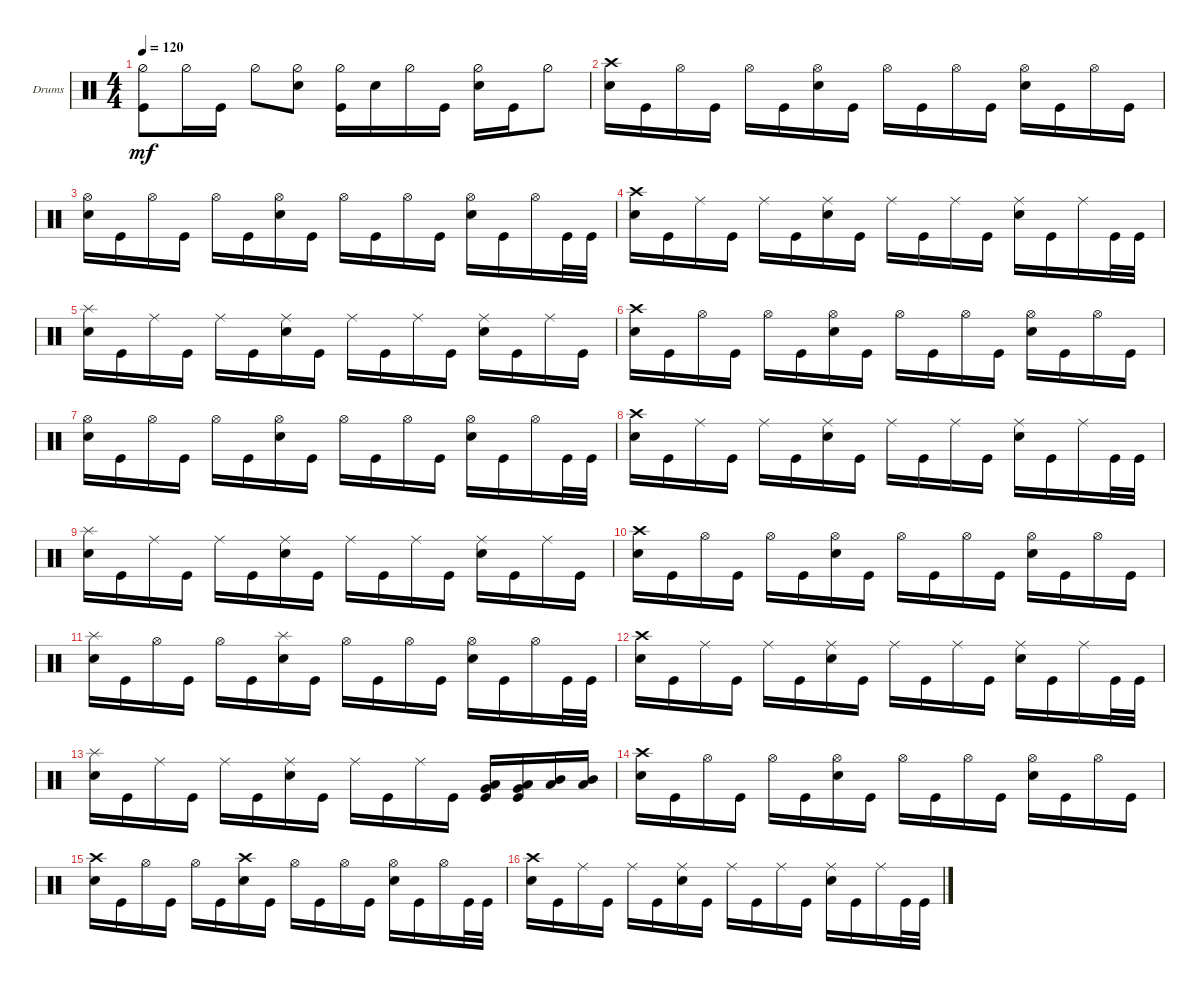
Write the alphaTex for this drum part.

\defaultSystemsLayout 4
\bracketExtendMode groupsimilarinstruments
\firstSystemTrackNameOrientation horizontal
\otherSystemsTrackNameOrientation horizontal
\track ("Drumkit" "Drums") {instrument percussion}
\staff {score}
\articulation defaults
\ts (4 4)
\tempo 120
\clef neutral
\ks c
("Kick (hit)" "Hi-Hat (half)").8{dy mf} "Hi-Hat (half)".16 "Kick (hit)".16 "Hi-Hat (half)".8 ("Snare (hit) 2" "Hi-Hat (half)").8 ("Kick (hit)" "Hi-Hat (half)").16 "Snare (hit) 2".16 "Hi-Hat (half)".16 "Kick (hit)".16 ("Snare (hit) 2" "Hi-Hat (half)").16 "Kick (hit)".16 "Hi-Hat (half)".8 |
("Snare (hit) 2" "Crash high (hit)").16 "Kick (hit)".16 "Hi-Hat (open)".16 "Kick (hit)".16 "Hi-Hat (open)".16 "Kick (hit)".16 ("Snare (hit) 2" "Hi-Hat (open)").16 "Kick (hit)".16 "Hi-Hat (open)".16 "Kick (hit)".16 "Hi-Hat (open)".16 "Kick (hit)".16 ("Snare (hit) 2" "Hi-Hat (open)").16 "Kick (hit)".16 "Hi-Hat (open)".16 "Kick (hit)".16 |
("Snare (hit) 2" "Hi-Hat (open)").16 "Kick (hit)".16 "Hi-Hat (open)".16 "Kick (hit)".16 "Hi-Hat (open)".16 "Kick (hit)".16 ("Snare (hit) 2" "Hi-Hat (open)").16 "Kick (hit)".16 "Hi-Hat (open)".16 "Kick (hit)".16 "Hi-Hat (open)".16 "Kick (hit)".16 ("Snare (hit) 2" "Hi-Hat (open)").16 "Kick (hit)".16 "Hi-Hat (open)".16 "Kick (hit)".32 "Kick (hit)".32 |
("Snare (hit) 2" "Crash high (hit)").16 "Kick (hit)".16 "Ride (middle)".16 "Kick (hit)".16 "Ride (middle)".16 "Kick (hit)".16 ("Snare (hit) 2" "Ride (middle)").16 "Kick (hit)".16 "Ride (middle)".16 "Kick (hit)".16 "Ride (middle)".16 "Kick (hit)".16 ("Snare (hit) 2" "Ride (middle)").16 "Kick (hit)".16 "Ride (middle)".16 "Kick (hit)".32 "Kick (hit)".32 |
("Snare (hit) 2" "Splash (hit)").16 "Kick (hit)".16 "Ride (middle)".16 "Kick (hit)".16 "Ride (middle)".16 "Kick (hit)".16 ("Snare (hit) 2" "Ride (middle)").16 "Kick (hit)".16 "Ride (middle)".16 "Kick (hit)".16 "Ride (middle)".16 "Kick (hit)".16 ("Snare (hit) 2" "Ride (middle)").16 "Kick (hit)".16 "Ride (middle)".16 "Kick (hit)".16 |
("Snare (hit) 2" "Crash high (hit)").16 "Kick (hit)".16 "Hi-Hat (open)".16 "Kick (hit)".16 "Hi-Hat (open)".16 "Kick (hit)".16 ("Snare (hit) 2" "Hi-Hat (open)").16 "Kick (hit)".16 "Hi-Hat (open)".16 "Kick (hit)".16 "Hi-Hat (open)".16 "Kick (hit)".16 ("Snare (hit) 2" "Hi-Hat (open)").16 "Kick (hit)".16 "Hi-Hat (open)".16 "Kick (hit)".16 |
("Snare (hit) 2" "Hi-Hat (open)").16 "Kick (hit)".16 "Hi-Hat (open)".16 "Kick (hit)".16 "Hi-Hat (open)".16 "Kick (hit)".16 ("Snare (hit) 2" "Hi-Hat (open)").16 "Kick (hit)".16 "Hi-Hat (open)".16 "Kick (hit)".16 "Hi-Hat (open)".16 "Kick (hit)".16 ("Snare (hit) 2" "Hi-Hat (open)").16 "Kick (hit)".16 "Hi-Hat (open)".16 "Kick (hit)".32 "Kick (hit)".32 |
("Snare (hit) 2" "Crash high (hit)").16 "Kick (hit)".16 "Ride (middle)".16 "Kick (hit)".16 "Ride (middle)".16 "Kick (hit)".16 ("Snare (hit) 2" "Ride (middle)").16 "Kick (hit)".16 "Ride (middle)".16 "Kick (hit)".16 "Ride (middle)".16 "Kick (hit)".16 ("Snare (hit) 2" "Ride (middle)").16 "Kick (hit)".16 "Ride (middle)".16 "Kick (hit)".32 "Kick (hit)".32 |
("Snare (hit) 2" "Splash (hit)").16 "Kick (hit)".16 "Ride (middle)".16 "Kick (hit)".16 "Ride (middle)".16 "Kick (hit)".16 ("Snare (hit) 2" "Ride (middle)").16 "Kick (hit)".16 "Ride (middle)".16 "Kick (hit)".16 "Ride (middle)".16 "Kick (hit)".16 ("Snare (hit) 2" "Ride (middle)").16 "Kick (hit)".16 "Ride (middle)".16 "Kick (hit)".16 |
("Snare (hit) 2" "Crash high (hit)").16 "Kick (hit)".16 "Hi-Hat (open)".16 "Kick (hit)".16 "Hi-Hat (open)".16 "Kick (hit)".16 ("Snare (hit) 2" "Hi-Hat (open)").16 "Kick (hit)".16 "Hi-Hat (open)".16 "Kick (hit)".16 "Hi-Hat (open)".16 "Kick (hit)".16 ("Snare (hit) 2" "Hi-Hat (open)").16 "Kick (hit)".16 "Hi-Hat (open)".16 "Kick (hit)".16 |
("Snare (hit) 2" "Splash (hit)").16 "Kick (hit)".16 "Hi-Hat (open)".16 "Kick (hit)".16 "Hi-Hat (open)".16 "Kick (hit)".16 ("Snare (hit) 2" "Splash (hit)").16 "Kick (hit)".16 "Hi-Hat (open)".16 "Kick (hit)".16 "Hi-Hat (open)".16 "Kick (hit)".16 ("Snare (hit) 2" "Hi-Hat (open)").16 "Kick (hit)".16 "Hi-Hat (open)".16 "Kick (hit)".32 "Kick (hit)".32 |
("Snare (hit) 2" "Crash high (hit)").16 "Kick (hit)".16 "Ride (middle)".16 "Kick (hit)".16 "Ride (middle)".16 "Kick (hit)".16 ("Snare (hit) 2" "Ride (middle)").16 "Kick (hit)".16 "Ride (middle)".16 "Kick (hit)".16 "Ride (middle)".16 "Kick (hit)".16 ("Snare (hit) 2" "Ride (middle)").16 "Kick (hit)".16 "Ride (middle)".16 "Kick (hit)".32 "Kick (hit)".32 |
("Snare (hit) 2" "Splash (hit)").16 "Kick (hit)".16 "Ride (middle)".16 "Kick (hit)".16 "Ride (middle)".16 "Kick (hit)".16 ("Snare (hit) 2" "Ride (middle)").16 "Kick (hit)".16 "Ride (middle)".16 "Kick (hit)".16 "Ride (middle)".16 "Kick (hit)".16 ("Very Low Tom (hit)" "Low Tom (hit)" "Kick (hit)").16 ("Very Low Tom (hit)" "Low Tom (hit)" "Kick (hit)").16 ("Low Tom (hit)" "Mid Tom (hit)").16 ("Low Tom (hit)" "Mid Tom (hit)").16 |
("Snare (hit) 2" "Crash high (hit)").16 "Kick (hit)".16 "Hi-Hat (open)".16 "Kick (hit)".16 "Hi-Hat (open)".16 "Kick (hit)".16 ("Snare (hit) 2" "Hi-Hat (open)").16 "Kick (hit)".16 "Hi-Hat (open)".16 "Kick (hit)".16 "Hi-Hat (open)".16 "Kick (hit)".16 ("Snare (hit) 2" "Hi-Hat (open)").16 "Kick (hit)".16 "Hi-Hat (open)".16 "Kick (hit)".16 |
("Snare (hit) 2" "Crash high (hit)").16 "Kick (hit)".16 "Hi-Hat (open)".16 "Kick (hit)".16 "Hi-Hat (open)".16 "Kick (hit)".16 ("Snare (hit) 2" "Crash high (hit)").16 "Kick (hit)".16 "Hi-Hat (open)".16 "Kick (hit)".16 "Hi-Hat (open)".16 "Kick (hit)".16 ("Snare (hit) 2" "Hi-Hat (open)").16 "Kick (hit)".16 "Hi-Hat (open)".16 "Kick (hit)".32 "Kick (hit)".32 |
("Snare (hit) 2" "Crash high (hit)").16 "Kick (hit)".16 "Ride (middle)".16 "Kick (hit)".16 "Ride (middle)".16 "Kick (hit)".16 ("Snare (hit) 2" "Ride (middle)").16 "Kick (hit)".16 "Ride (middle)".16 "Kick (hit)".16 "Ride (middle)".16 "Kick (hit)".16 ("Snare (hit) 2" "Ride (middle)").16 "Kick (hit)".16 "Ride (middle)".16 "Kick (hit)".32 "Kick (hit)".32
